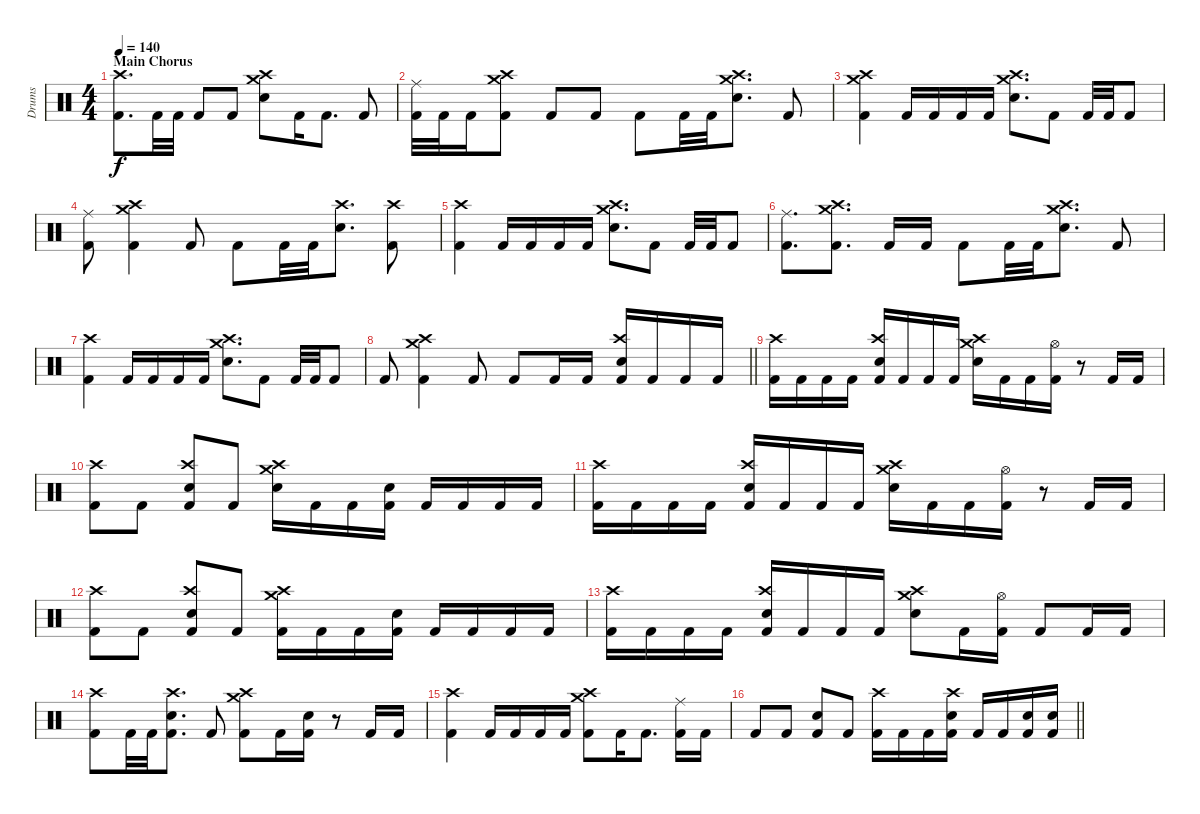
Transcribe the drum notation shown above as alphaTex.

\track ("Drums" "Drums") {instrument percussion}
\staff {score}
\articulation defaults
\ts (4 4)
\section ("" "Main Chorus")
\tempo 140
\clef neutral
\ks c
("Kick (hit) 2" "Crash high (hit)").8{d dy f} "Kick (hit) 2".32 "Kick (hit) 2".32 "Kick (hit) 2".8 "Kick (hit) 2".8 ("Electric Snare (hit)" "Crash high (hit)" "Crash medium (hit)").8 "Kick (hit) 2".16 "Kick (hit) 2".8{d} "Kick (hit) 2".8 |
("Ride (middle)" "Kick (hit) 2").32 "Kick (hit) 2".32 "Kick (hit) 2".16 ("Kick (hit) 2" "Crash high (hit)" "Crash medium (hit)").8 "Kick (hit) 2".8 "Kick (hit) 2".8 "Kick (hit) 2".8 "Kick (hit) 2".32 "Kick (hit) 2".32 ("Electric Snare (hit)" "Crash high (hit)" "Crash medium (hit)").8{d} "Kick (hit) 2".8 |
("Kick (hit) 2" "Crash high (hit)" "Crash medium (hit)").4 "Kick (hit) 2".16 "Kick (hit) 2".16 "Kick (hit) 2".16 "Kick (hit) 2".16 ("Electric Snare (hit)" "Crash high (hit)" "Crash medium (hit)").8{d} "Kick (hit) 2".8 "Kick (hit) 2".32 "Kick (hit) 2".32 "Kick (hit) 2".8 |
("Kick (hit) 2" "Ride (middle)").8 ("Kick (hit) 2" "Crash high (hit)" "Crash medium (hit)").4 "Kick (hit) 2".8 "Kick (hit) 2".8 "Kick (hit) 2".32 "Kick (hit) 2".32 ("Electric Snare (hit)" "Crash high (hit)").8{d} ("Kick (hit) 2" "Crash high (hit)").8 |
("Kick (hit) 2" "Crash high (hit)").4 "Kick (hit) 2".16 "Kick (hit) 2".16 "Kick (hit) 2".16 "Kick (hit) 2".16 ("Electric Snare (hit)" "Crash high (hit)" "Crash medium (hit)").8{d} "Kick (hit) 2".8 "Kick (hit) 2".32 "Kick (hit) 2".32 "Kick (hit) 2".8 |
("Kick (hit) 2" "Ride (middle)").8{d} ("Kick (hit) 2" "Crash high (hit)" "Crash medium (hit)").8{d} "Kick (hit) 2".16 "Kick (hit) 2".16 "Kick (hit) 2".8 "Kick (hit) 2".32 "Kick (hit) 2".32 ("Electric Snare (hit)" "Crash high (hit)" "Crash medium (hit)").8{d} "Kick (hit) 2".8 |
("Kick (hit) 2" "Crash high (hit)").4 "Kick (hit) 2".16 "Kick (hit) 2".16 "Kick (hit) 2".16 "Kick (hit) 2".16 ("Electric Snare (hit)" "Crash high (hit)" "Crash medium (hit)").8{d} "Kick (hit) 2".8 "Kick (hit) 2".32 "Kick (hit) 2".32 "Kick (hit) 2".8 |
\barLineRight lightlight "Kick (hit) 2".8
("Kick (hit) 2" "Crash high (hit)" "Crash medium (hit)").4 "Kick (hit) 2".8 "Kick (hit) 2".8 "Kick (hit) 2".16 "Kick (hit) 2".16 ("Kick (hit) 2" "Crash high (hit)" "Electric Snare (hit)").16 "Kick (hit) 2".16 "Kick (hit) 2".16 "Kick (hit) 2".16 |
\section ("" "")
("Kick (hit) 2" "Crash high (hit)").16 "Kick (hit) 2".16 "Kick (hit) 2".16 "Kick (hit) 2".16 ("Electric Snare (hit)" "Kick (hit) 2" "Crash high (hit)").16 "Kick (hit) 2".16 "Kick (hit) 2".16 "Kick (hit) 2".16 ("Electric Snare (hit)" "Crash high (hit)" "Crash medium (hit)").16 "Kick (hit) 2".16 "Kick (hit) 2".16 ("Hi-Hat (open)" "Kick (hit) 2").16 r.8 "Kick (hit) 2".16 "Kick (hit) 2".16 |
("Kick (hit) 2" "Crash high (hit)").8 "Kick (hit) 2".8 ("Electric Snare (hit)" "Kick (hit) 2" "Crash high (hit)").8 "Kick (hit) 2".8 ("Electric Snare (hit)" "Crash high (hit)" "Crash medium (hit)").16 "Kick (hit) 2".16 "Kick (hit) 2".16 ("Electric Snare (hit)" "Kick (hit) 2").16 "Kick (hit) 2".16 "Kick (hit) 2".16 "Kick (hit) 2".16 "Kick (hit) 2".16 |
("Kick (hit) 2" "Crash high (hit)").16 "Kick (hit) 2".16 "Kick (hit) 2".16 "Kick (hit) 2".16 ("Electric Snare (hit)" "Kick (hit) 2" "Crash high (hit)").16 "Kick (hit) 2".16 "Kick (hit) 2".16 "Kick (hit) 2".16 ("Electric Snare (hit)" "Crash high (hit)" "Crash medium (hit)").16 "Kick (hit) 2".16 "Kick (hit) 2".16 ("Hi-Hat (open)" "Kick (hit) 2").16 r.8 "Kick (hit) 2".16 "Kick (hit) 2".16 |
("Kick (hit) 2" "Crash high (hit)").8 "Kick (hit) 2".8 ("Electric Snare (hit)" "Kick (hit) 2" "Crash high (hit)").8 "Kick (hit) 2".8 ("Kick (hit) 2" "Crash high (hit)" "Crash medium (hit)").16 "Kick (hit) 2".16 "Kick (hit) 2".16 ("Electric Snare (hit)" "Kick (hit) 2").16 "Kick (hit) 2".16 "Kick (hit) 2".16 "Kick (hit) 2".16 "Kick (hit) 2".16 |
("Kick (hit) 2" "Crash high (hit)").16 "Kick (hit) 2".16 "Kick (hit) 2".16 "Kick (hit) 2".16 ("Electric Snare (hit)" "Kick (hit) 2" "Crash high (hit)").16 "Kick (hit) 2".16 "Kick (hit) 2".16 "Kick (hit) 2".16 ("Electric Snare (hit)" "Crash high (hit)" "Crash medium (hit)").8 "Kick (hit) 2".16 ("Hi-Hat (open)" "Kick (hit) 2").16 "Kick (hit) 2".8 "Kick (hit) 2".16 "Kick (hit) 2".16 |
("Kick (hit) 2" "Crash high (hit)").8 "Kick (hit) 2".32 "Kick (hit) 2".32 ("Electric Snare (hit)" "Kick (hit) 2" "Crash high (hit)").8{d} "Kick (hit) 2".8 ("Kick (hit) 2" "Crash high (hit)" "Crash medium (hit)").8 "Kick (hit) 2".16 ("Electric Snare (hit)" "Kick (hit) 2").16 r.8 "Kick (hit) 2".16 "Kick (hit) 2".16 |
("Kick (hit) 2" "Crash high (hit)").4 "Kick (hit) 2".16 "Kick (hit) 2".16 "Kick (hit) 2".16 "Kick (hit) 2".16 ("Kick (hit) 2" "Crash high (hit)" "Crash medium (hit)").8 "Kick (hit) 2".16 "Kick (hit) 2".8{d} ("Ride (middle)" "Kick (hit) 2").16 "Kick (hit) 2".16 |
\barLineRight lightlight "Kick (hit) 2".8 "Kick (hit) 2".8
("Kick (hit) 2" "Electric Snare (hit)").8 "Kick (hit) 2".8 ("Kick (hit) 2" "Crash high (hit)").16 "Kick (hit) 2".16 "Kick (hit) 2".16 ("Kick (hit) 2" "Electric Snare (hit)" "Crash high (hit)").16 "Kick (hit) 2".16 "Kick (hit) 2".16 ("Kick (hit) 2" "Electric Snare (hit)").16 ("Kick (hit) 2" "Electric Snare (hit)").16
